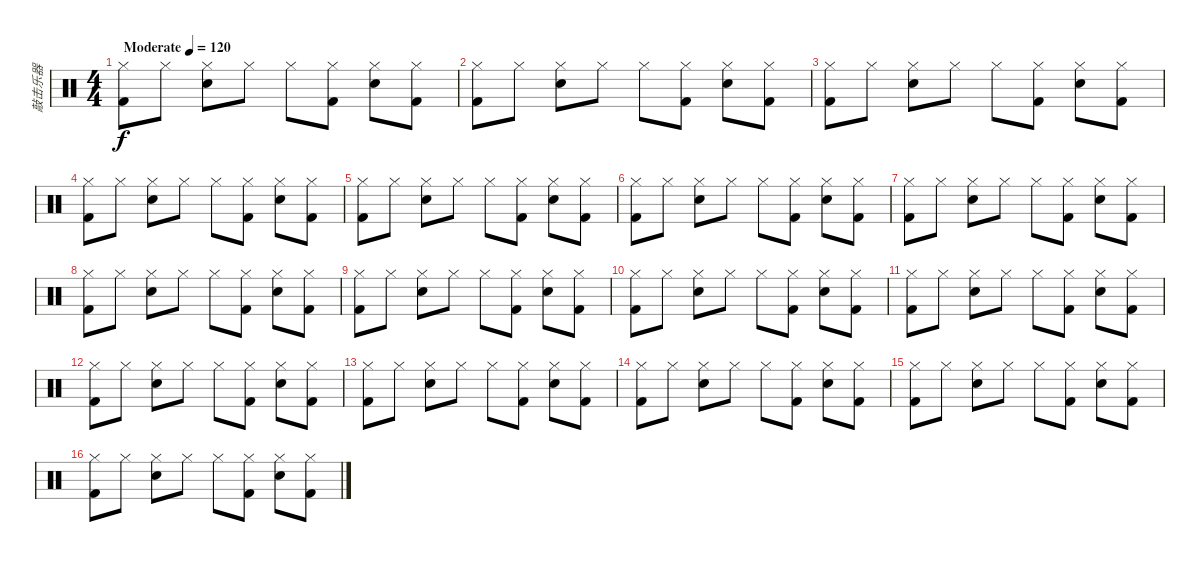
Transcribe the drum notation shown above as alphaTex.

\track ("敲击乐器" "敲击乐器") {instrument percussion}
\staff {score}
\articulation defaults
\ts (4 4)
\tempo (120 "Moderate")
\clef neutral
\ks c
("Hi-Hat (closed)" "Kick (hit) 2").8{dy f} "Hi-Hat (closed)".8 ("Hi-Hat (closed)" "Snare (hit) 2").8 "Hi-Hat (closed)".8 "Hi-Hat (closed)".8 ("Hi-Hat (closed)" "Kick (hit) 2").8 ("Hi-Hat (closed)" "Snare (hit) 2").8 ("Hi-Hat (closed)" "Kick (hit) 2").8 |
("Hi-Hat (closed)" "Kick (hit) 2").8 "Hi-Hat (closed)".8 ("Hi-Hat (closed)" "Snare (hit) 2").8 "Hi-Hat (closed)".8 "Hi-Hat (closed)".8 ("Hi-Hat (closed)" "Kick (hit) 2").8 ("Hi-Hat (closed)" "Snare (hit) 2").8 ("Hi-Hat (closed)" "Kick (hit) 2").8 |
("Hi-Hat (closed)" "Kick (hit) 2").8 "Hi-Hat (closed)".8 ("Hi-Hat (closed)" "Snare (hit) 2").8 "Hi-Hat (closed)".8 "Hi-Hat (closed)".8 ("Hi-Hat (closed)" "Kick (hit) 2").8 ("Hi-Hat (closed)" "Snare (hit) 2").8 ("Hi-Hat (closed)" "Kick (hit) 2").8 |
("Hi-Hat (closed)" "Kick (hit) 2").8 "Hi-Hat (closed)".8 ("Hi-Hat (closed)" "Snare (hit) 2").8 "Hi-Hat (closed)".8 "Hi-Hat (closed)".8 ("Hi-Hat (closed)" "Kick (hit) 2").8 ("Hi-Hat (closed)" "Snare (hit) 2").8 ("Hi-Hat (closed)" "Kick (hit) 2").8 |
("Hi-Hat (closed)" "Kick (hit) 2").8 "Hi-Hat (closed)".8 ("Hi-Hat (closed)" "Snare (hit) 2").8 "Hi-Hat (closed)".8 "Hi-Hat (closed)".8 ("Hi-Hat (closed)" "Kick (hit) 2").8 ("Hi-Hat (closed)" "Snare (hit) 2").8 ("Hi-Hat (closed)" "Kick (hit) 2").8 |
("Hi-Hat (closed)" "Kick (hit) 2").8 "Hi-Hat (closed)".8 ("Hi-Hat (closed)" "Snare (hit) 2").8 "Hi-Hat (closed)".8 "Hi-Hat (closed)".8 ("Hi-Hat (closed)" "Kick (hit) 2").8 ("Hi-Hat (closed)" "Snare (hit) 2").8 ("Hi-Hat (closed)" "Kick (hit) 2").8 |
("Hi-Hat (closed)" "Kick (hit) 2").8 "Hi-Hat (closed)".8 ("Hi-Hat (closed)" "Snare (hit) 2").8 "Hi-Hat (closed)".8 "Hi-Hat (closed)".8 ("Hi-Hat (closed)" "Kick (hit) 2").8 ("Hi-Hat (closed)" "Snare (hit) 2").8 ("Hi-Hat (closed)" "Kick (hit) 2").8 |
("Hi-Hat (closed)" "Kick (hit) 2").8 "Hi-Hat (closed)".8 ("Hi-Hat (closed)" "Snare (hit) 2").8 "Hi-Hat (closed)".8 "Hi-Hat (closed)".8 ("Hi-Hat (closed)" "Kick (hit) 2").8 ("Hi-Hat (closed)" "Snare (hit) 2").8 ("Hi-Hat (closed)" "Kick (hit) 2").8 |
("Hi-Hat (closed)" "Kick (hit) 2").8 "Hi-Hat (closed)".8 ("Hi-Hat (closed)" "Snare (hit) 2").8 "Hi-Hat (closed)".8 "Hi-Hat (closed)".8 ("Hi-Hat (closed)" "Kick (hit) 2").8 ("Hi-Hat (closed)" "Snare (hit) 2").8 ("Hi-Hat (closed)" "Kick (hit) 2").8 |
("Hi-Hat (closed)" "Kick (hit) 2").8 "Hi-Hat (closed)".8 ("Hi-Hat (closed)" "Snare (hit) 2").8 "Hi-Hat (closed)".8 "Hi-Hat (closed)".8 ("Hi-Hat (closed)" "Kick (hit) 2").8 ("Hi-Hat (closed)" "Snare (hit) 2").8 ("Hi-Hat (closed)" "Kick (hit) 2").8 |
("Hi-Hat (closed)" "Kick (hit) 2").8 "Hi-Hat (closed)".8 ("Hi-Hat (closed)" "Snare (hit) 2").8 "Hi-Hat (closed)".8 "Hi-Hat (closed)".8 ("Hi-Hat (closed)" "Kick (hit) 2").8 ("Hi-Hat (closed)" "Snare (hit) 2").8 ("Hi-Hat (closed)" "Kick (hit) 2").8 |
("Hi-Hat (closed)" "Kick (hit) 2").8 "Hi-Hat (closed)".8 ("Hi-Hat (closed)" "Snare (hit) 2").8 "Hi-Hat (closed)".8 "Hi-Hat (closed)".8 ("Hi-Hat (closed)" "Kick (hit) 2").8 ("Hi-Hat (closed)" "Snare (hit) 2").8 ("Hi-Hat (closed)" "Kick (hit) 2").8 |
("Hi-Hat (closed)" "Kick (hit) 2").8 "Hi-Hat (closed)".8 ("Hi-Hat (closed)" "Snare (hit) 2").8 "Hi-Hat (closed)".8 "Hi-Hat (closed)".8 ("Hi-Hat (closed)" "Kick (hit) 2").8 ("Hi-Hat (closed)" "Snare (hit) 2").8 ("Hi-Hat (closed)" "Kick (hit) 2").8 |
("Hi-Hat (closed)" "Kick (hit) 2").8 "Hi-Hat (closed)".8 ("Hi-Hat (closed)" "Snare (hit) 2").8 "Hi-Hat (closed)".8 "Hi-Hat (closed)".8 ("Hi-Hat (closed)" "Kick (hit) 2").8 ("Hi-Hat (closed)" "Snare (hit) 2").8 ("Hi-Hat (closed)" "Kick (hit) 2").8 |
("Hi-Hat (closed)" "Kick (hit) 2").8 "Hi-Hat (closed)".8 ("Hi-Hat (closed)" "Snare (hit) 2").8 "Hi-Hat (closed)".8 "Hi-Hat (closed)".8 ("Hi-Hat (closed)" "Kick (hit) 2").8 ("Hi-Hat (closed)" "Snare (hit) 2").8 ("Hi-Hat (closed)" "Kick (hit) 2").8 |
("Hi-Hat (closed)" "Kick (hit) 2").8 "Hi-Hat (closed)".8 ("Hi-Hat (closed)" "Snare (hit) 2").8 "Hi-Hat (closed)".8 "Hi-Hat (closed)".8 ("Hi-Hat (closed)" "Kick (hit) 2").8 ("Hi-Hat (closed)" "Snare (hit) 2").8 ("Hi-Hat (closed)" "Kick (hit) 2").8
